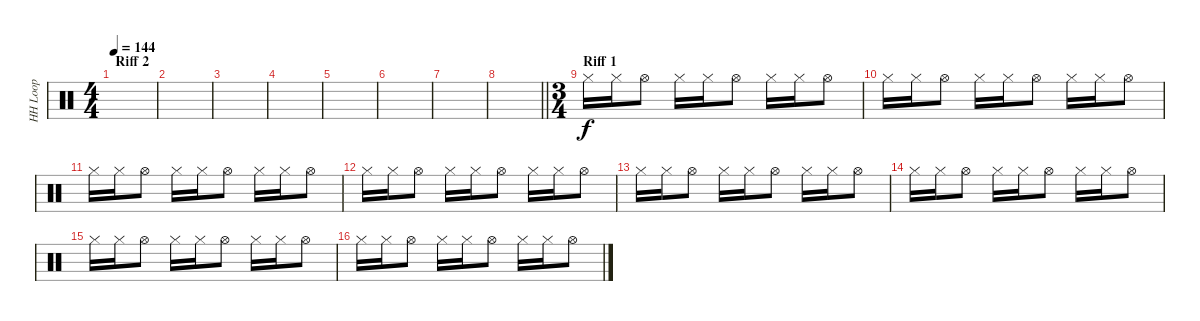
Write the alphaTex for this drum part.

\track ("HH Loop" "HH Loop") {instrument percussion}
\staff {score}
\articulation defaults
\ts (4 4)
\section ("" "Riff 2")
\tempo 144
\clef neutral
\ks c
|
|
|
|
|
|
|
\barLineRight lightlight
|
\ts (3 4)
\section ("" "Riff 1")
"Hi-Hat (closed)".16 "Hi-Hat (closed)".16 "Hi-Hat (open)".8 "Hi-Hat (closed)".16 "Hi-Hat (closed)".16 "Hi-Hat (open)".8 "Hi-Hat (closed)".16 "Hi-Hat (closed)".16 "Hi-Hat (open)".8 |
"Hi-Hat (closed)".16 "Hi-Hat (closed)".16 "Hi-Hat (open)".8 "Hi-Hat (closed)".16 "Hi-Hat (closed)".16 "Hi-Hat (open)".8 "Hi-Hat (closed)".16 "Hi-Hat (closed)".16 "Hi-Hat (open)".8 |
"Hi-Hat (closed)".16 "Hi-Hat (closed)".16 "Hi-Hat (open)".8 "Hi-Hat (closed)".16 "Hi-Hat (closed)".16 "Hi-Hat (open)".8 "Hi-Hat (closed)".16 "Hi-Hat (closed)".16 "Hi-Hat (open)".8 |
"Hi-Hat (closed)".16 "Hi-Hat (closed)".16 "Hi-Hat (open)".8 "Hi-Hat (closed)".16 "Hi-Hat (closed)".16 "Hi-Hat (open)".8 "Hi-Hat (closed)".16 "Hi-Hat (closed)".16 "Hi-Hat (open)".8 |
"Hi-Hat (closed)".16 "Hi-Hat (closed)".16 "Hi-Hat (open)".8 "Hi-Hat (closed)".16 "Hi-Hat (closed)".16 "Hi-Hat (open)".8 "Hi-Hat (closed)".16 "Hi-Hat (closed)".16 "Hi-Hat (open)".8 |
"Hi-Hat (closed)".16 "Hi-Hat (closed)".16 "Hi-Hat (open)".8 "Hi-Hat (closed)".16 "Hi-Hat (closed)".16 "Hi-Hat (open)".8 "Hi-Hat (closed)".16 "Hi-Hat (closed)".16 "Hi-Hat (open)".8 |
"Hi-Hat (closed)".16 "Hi-Hat (closed)".16 "Hi-Hat (open)".8 "Hi-Hat (closed)".16 "Hi-Hat (closed)".16 "Hi-Hat (open)".8 "Hi-Hat (closed)".16 "Hi-Hat (closed)".16 "Hi-Hat (open)".8 |
"Hi-Hat (closed)".16 "Hi-Hat (closed)".16 "Hi-Hat (open)".8 "Hi-Hat (closed)".16 "Hi-Hat (closed)".16 "Hi-Hat (open)".8 "Hi-Hat (closed)".16 "Hi-Hat (closed)".16 "Hi-Hat (open)".8
